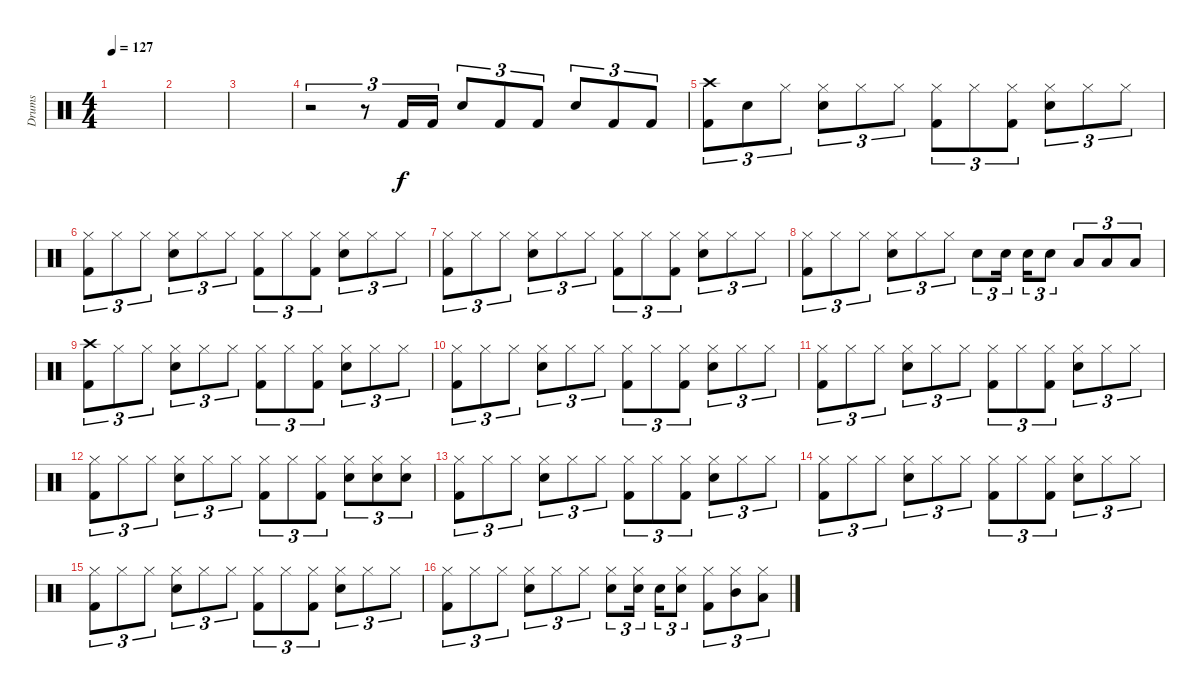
\track ("Drums" "Drums") {instrument percussion}
\staff {score}
\articulation defaults
\ts (4 4)
\tempo 127
\clef neutral
\ks c
|
|
|
r.2{tu (3 2)} r.8{tu (3 2)} "Kick (hit) 2".16{tu (3 2)} "Kick (hit) 2".16{tu (3 2)} "Electric Snare (hit)".8{tu (3 2)} "Kick (hit) 2".8{tu (3 2)} "Kick (hit) 2".8{tu (3 2)} "Electric Snare (hit)".8{tu (3 2)} "Kick (hit) 2".8{tu (3 2)} "Kick (hit) 2".8{tu (3 2)} |
("Crash high (hit)" "Kick (hit) 2").8{tu (3 2)} "Snare (hit)".8{tu (3 2)} "Hi-Hat (closed)".8{tu (3 2)} ("Hi-Hat (closed)" "Electric Snare (hit)").8{tu (3 2)} "Hi-Hat (closed)".8{tu (3 2)} "Hi-Hat (closed)".8{tu (3 2)} ("Hi-Hat (closed)" "Kick (hit) 2").8{tu (3 2)} "Hi-Hat (closed)".8{tu (3 2)} ("Hi-Hat (closed)" "Kick (hit) 2").8{tu (3 2)} ("Hi-Hat (closed)" "Electric Snare (hit)").8{tu (3 2)} "Hi-Hat (closed)".8{tu (3 2)} "Hi-Hat (closed)".8{tu (3 2)} |
("Hi-Hat (closed)" "Kick (hit) 2").8{tu (3 2)} "Hi-Hat (closed)".8{tu (3 2)} "Hi-Hat (closed)".8{tu (3 2)} ("Hi-Hat (closed)" "Electric Snare (hit)").8{tu (3 2)} "Hi-Hat (closed)".8{tu (3 2)} "Hi-Hat (closed)".8{tu (3 2)} ("Hi-Hat (closed)" "Kick (hit) 2").8{tu (3 2)} "Hi-Hat (closed)".8{tu (3 2)} ("Hi-Hat (closed)" "Kick (hit) 2").8{tu (3 2)} ("Hi-Hat (closed)" "Electric Snare (hit)").8{tu (3 2)} "Hi-Hat (closed)".8{tu (3 2)} "Hi-Hat (closed)".8{tu (3 2)} |
("Hi-Hat (closed)" "Kick (hit) 2").8{tu (3 2)} "Hi-Hat (closed)".8{tu (3 2)} "Hi-Hat (closed)".8{tu (3 2)} ("Hi-Hat (closed)" "Electric Snare (hit)").8{tu (3 2)} "Hi-Hat (closed)".8{tu (3 2)} "Hi-Hat (closed)".8{tu (3 2)} ("Hi-Hat (closed)" "Kick (hit) 2").8{tu (3 2)} "Hi-Hat (closed)".8{tu (3 2)} ("Hi-Hat (closed)" "Kick (hit) 2").8{tu (3 2)} ("Hi-Hat (closed)" "Electric Snare (hit)").8{tu (3 2)} "Hi-Hat (closed)".8{tu (3 2)} "Hi-Hat (closed)".8{tu (3 2)} |
("Hi-Hat (closed)" "Kick (hit) 2").8{tu (3 2)} "Hi-Hat (closed)".8{tu (3 2)} "Hi-Hat (closed)".8{tu (3 2)} ("Hi-Hat (closed)" "Electric Snare (hit)").8{tu (3 2)} "Hi-Hat (closed)".8{tu (3 2)} "Hi-Hat (closed)".8{tu (3 2)} "Electric Snare (hit)".8{tu (3 2)} "Electric Snare (hit)".16{tu (3 2)} "Electric Snare (hit)".16{tu (3 2)} "Electric Snare (hit)".8{tu (3 2)} "Low Tom (hit)".8{tu (3 2)} "Low Tom (hit)".8{tu (3 2)} "Low Tom (hit)".8{tu (3 2)} |
("Crash high (hit)" "Kick (hit) 2").8{tu (3 2)} "Hi-Hat (closed)".8{tu (3 2)} "Hi-Hat (closed)".8{tu (3 2)} ("Hi-Hat (closed)" "Electric Snare (hit)").8{tu (3 2)} "Hi-Hat (closed)".8{tu (3 2)} "Hi-Hat (closed)".8{tu (3 2)} ("Hi-Hat (closed)" "Kick (hit) 2").8{tu (3 2)} "Hi-Hat (closed)".8{tu (3 2)} ("Hi-Hat (closed)" "Kick (hit) 2").8{tu (3 2)} ("Hi-Hat (closed)" "Electric Snare (hit)").8{tu (3 2)} "Hi-Hat (closed)".8{tu (3 2)} "Hi-Hat (closed)".8{tu (3 2)} |
("Hi-Hat (closed)" "Kick (hit) 2").8{tu (3 2)} "Hi-Hat (closed)".8{tu (3 2)} "Hi-Hat (closed)".8{tu (3 2)} ("Hi-Hat (closed)" "Electric Snare (hit)").8{tu (3 2)} "Hi-Hat (closed)".8{tu (3 2)} "Hi-Hat (closed)".8{tu (3 2)} ("Hi-Hat (closed)" "Kick (hit) 2").8{tu (3 2)} "Hi-Hat (closed)".8{tu (3 2)} ("Hi-Hat (closed)" "Kick (hit) 2").8{tu (3 2)} ("Hi-Hat (closed)" "Electric Snare (hit)").8{tu (3 2)} "Hi-Hat (closed)".8{tu (3 2)} "Hi-Hat (closed)".8{tu (3 2)} |
("Hi-Hat (closed)" "Kick (hit) 2").8{tu (3 2)} "Hi-Hat (closed)".8{tu (3 2)} "Hi-Hat (closed)".8{tu (3 2)} ("Hi-Hat (closed)" "Electric Snare (hit)").8{tu (3 2)} "Hi-Hat (closed)".8{tu (3 2)} "Hi-Hat (closed)".8{tu (3 2)} ("Hi-Hat (closed)" "Kick (hit) 2").8{tu (3 2)} "Hi-Hat (closed)".8{tu (3 2)} ("Hi-Hat (closed)" "Kick (hit) 2").8{tu (3 2)} ("Hi-Hat (closed)" "Electric Snare (hit)").8{tu (3 2)} "Hi-Hat (closed)".8{tu (3 2)} "Hi-Hat (closed)".8{tu (3 2)} |
("Hi-Hat (closed)" "Kick (hit) 2").8{tu (3 2)} "Hi-Hat (closed)".8{tu (3 2)} "Hi-Hat (closed)".8{tu (3 2)} ("Hi-Hat (closed)" "Electric Snare (hit)").8{tu (3 2)} "Hi-Hat (closed)".8{tu (3 2)} "Hi-Hat (closed)".8{tu (3 2)} ("Hi-Hat (closed)" "Kick (hit) 2").8{tu (3 2)} "Hi-Hat (closed)".8{tu (3 2)} ("Hi-Hat (closed)" "Kick (hit) 2").8{tu (3 2)} ("Hi-Hat (closed)" "Electric Snare (hit)").8{tu (3 2)} ("Hi-Hat (closed)" "Electric Snare (hit)").8{tu (3 2)} ("Hi-Hat (closed)" "Electric Snare (hit)").8{tu (3 2)} |
("Hi-Hat (closed)" "Kick (hit) 2").8{tu (3 2)} "Hi-Hat (closed)".8{tu (3 2)} "Hi-Hat (closed)".8{tu (3 2)} ("Hi-Hat (closed)" "Electric Snare (hit)").8{tu (3 2)} "Hi-Hat (closed)".8{tu (3 2)} "Hi-Hat (closed)".8{tu (3 2)} ("Hi-Hat (closed)" "Kick (hit) 2").8{tu (3 2)} "Hi-Hat (closed)".8{tu (3 2)} ("Hi-Hat (closed)" "Kick (hit) 2").8{tu (3 2)} ("Hi-Hat (closed)" "Electric Snare (hit)").8{tu (3 2)} "Hi-Hat (closed)".8{tu (3 2)} "Hi-Hat (closed)".8{tu (3 2)} |
("Hi-Hat (closed)" "Kick (hit) 2").8{tu (3 2)} "Hi-Hat (closed)".8{tu (3 2)} "Hi-Hat (closed)".8{tu (3 2)} ("Hi-Hat (closed)" "Electric Snare (hit)").8{tu (3 2)} "Hi-Hat (closed)".8{tu (3 2)} "Hi-Hat (closed)".8{tu (3 2)} ("Hi-Hat (closed)" "Kick (hit) 2").8{tu (3 2)} "Hi-Hat (closed)".8{tu (3 2)} ("Hi-Hat (closed)" "Kick (hit) 2").8{tu (3 2)} ("Hi-Hat (closed)" "Electric Snare (hit)").8{tu (3 2)} "Hi-Hat (closed)".8{tu (3 2)} "Hi-Hat (closed)".8{tu (3 2)} |
("Hi-Hat (closed)" "Kick (hit) 2").8{tu (3 2)} "Hi-Hat (closed)".8{tu (3 2)} "Hi-Hat (closed)".8{tu (3 2)} ("Hi-Hat (closed)" "Electric Snare (hit)").8{tu (3 2)} "Hi-Hat (closed)".8{tu (3 2)} "Hi-Hat (closed)".8{tu (3 2)} ("Hi-Hat (closed)" "Kick (hit) 2").8{tu (3 2)} "Hi-Hat (closed)".8{tu (3 2)} ("Hi-Hat (closed)" "Kick (hit) 2").8{tu (3 2)} ("Hi-Hat (closed)" "Electric Snare (hit)").8{tu (3 2)} "Hi-Hat (closed)".8{tu (3 2)} "Hi-Hat (closed)".8{tu (3 2)} |
("Hi-Hat (closed)" "Kick (hit) 2").8{tu (3 2)} "Hi-Hat (closed)".8{tu (3 2)} "Hi-Hat (closed)".8{tu (3 2)} ("Hi-Hat (closed)" "Electric Snare (hit)").8{tu (3 2)} "Hi-Hat (closed)".8{tu (3 2)} "Hi-Hat (closed)".8{tu (3 2)} ("Hi-Hat (closed)" "Electric Snare (hit)").8{tu (3 2)} ("Hi-Hat (closed)" "Electric Snare (hit)").16{tu (3 2)} "Electric Snare (hit)".16{tu (3 2)} ("Hi-Hat (closed)" "Electric Snare (hit)").8{tu (3 2)} ("Hi-Hat (closed)" "Kick (hit) 2").8{tu (3 2)} ("Hi-Hat (closed)" "Mid Tom (hit)").8{tu (3 2)} ("Hi-Hat (closed)" "Low Tom (hit)").8{tu (3 2)}
